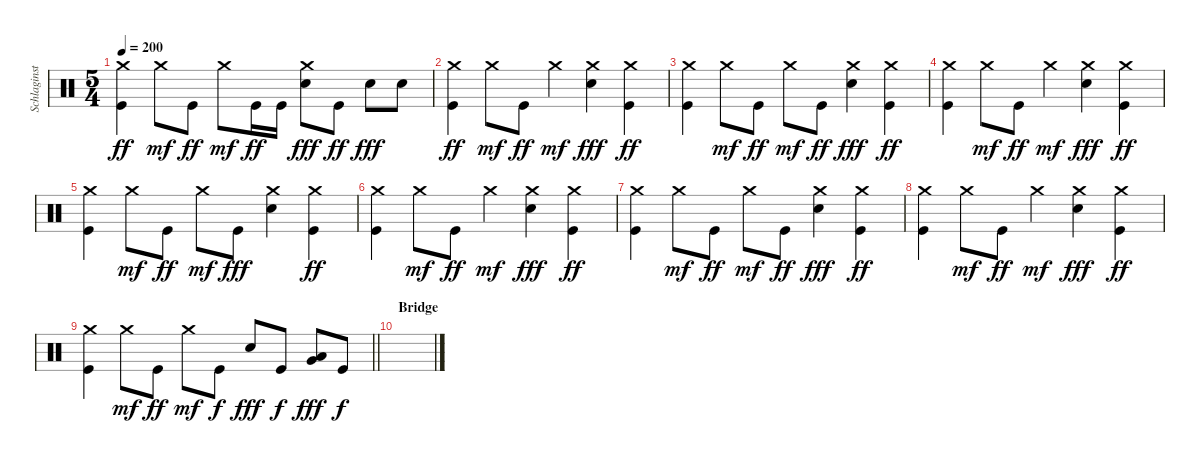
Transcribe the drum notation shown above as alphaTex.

\track ("Schlaginstrumente - Auswahl" "Schlaginst") {instrument percussion}
\staff {score}
\articulation defaults
\ts (5 4)
\tempo 200
\clef neutral
\ks c
("Crash medium (hit)" "Kick (hit)").4{dy ff} "Crash medium (hit)".8{dy mf} "Kick (hit)".8{dy ff} "Crash medium (hit)".8{dy mf} "Kick (hit)".16{dy ff} "Kick (hit)".16 ("Crash medium (hit)" "Snare (hit) 2").8{dy fff} "Kick (hit)".8{dy ff} "Snare (hit) 2".8{dy fff} "Snare (hit) 2".8 |
("Crash medium (hit)" "Kick (hit)").4{dy ff} "Crash medium (hit)".8{dy mf} "Kick (hit)".8{dy ff} "Crash medium (hit)".4{dy mf} ("Crash medium (hit)" "Snare (hit) 2").4{dy fff} ("Crash medium (hit)" "Kick (hit)").4{dy ff} |
("Crash medium (hit)" "Kick (hit)").4 "Crash medium (hit)".8{dy mf} "Kick (hit)".8{dy ff} "Crash medium (hit)".8{dy mf} "Kick (hit)".8{dy ff} ("Crash medium (hit)" "Snare (hit) 2").4{dy fff} ("Crash medium (hit)" "Kick (hit)").4{dy ff} |
("Crash medium (hit)" "Kick (hit)").4 "Crash medium (hit)".8{dy mf} "Kick (hit)".8{dy ff} "Crash medium (hit)".4{dy mf} ("Crash medium (hit)" "Snare (hit) 2").4{dy fff} ("Crash medium (hit)" "Kick (hit)").4{dy ff} |
("Crash medium (hit)" "Kick (hit)").4 "Crash medium (hit)".8{dy mf} "Kick (hit)".8{dy ff} "Crash medium (hit)".8{dy mf} "Kick (hit)".8{dy fff} ("Crash medium (hit)" "Snare (hit) 2").4 ("Crash medium (hit)" "Kick (hit)").4{dy ff} |
("Crash medium (hit)" "Kick (hit)").4 "Crash medium (hit)".8{dy mf} "Kick (hit)".8{dy ff} "Crash medium (hit)".4{dy mf} ("Crash medium (hit)" "Snare (hit) 2").4{dy fff} ("Crash medium (hit)" "Kick (hit)").4{dy ff} |
("Crash medium (hit)" "Kick (hit)").4 "Crash medium (hit)".8{dy mf} "Kick (hit)".8{dy ff} "Crash medium (hit)".8{dy mf} "Kick (hit)".8{dy ff} ("Crash medium (hit)" "Snare (hit) 2").4{dy fff} ("Crash medium (hit)" "Kick (hit)").4{dy ff} |
("Crash medium (hit)" "Kick (hit)").4 "Crash medium (hit)".8{dy mf} "Kick (hit)".8{dy ff} "Crash medium (hit)".4{dy mf} ("Crash medium (hit)" "Snare (hit) 2").4{dy fff} ("Crash medium (hit)" "Kick (hit)").4{dy ff} |
\barLineRight lightlight
("Crash medium (hit)" "Kick (hit)").4 "Crash medium (hit)".8{dy mf} "Kick (hit)".8{dy ff} "Crash medium (hit)".8{dy mf} "Kick (hit)".8{dy f} "Snare (hit) 2".8{dy fff} "Kick (hit)".8{dy f} ("Low Tom (hit)" "Very Low Tom (hit)").8{dy fff} "Kick (hit)".8{dy f} |
\section ("" "Bridge")
